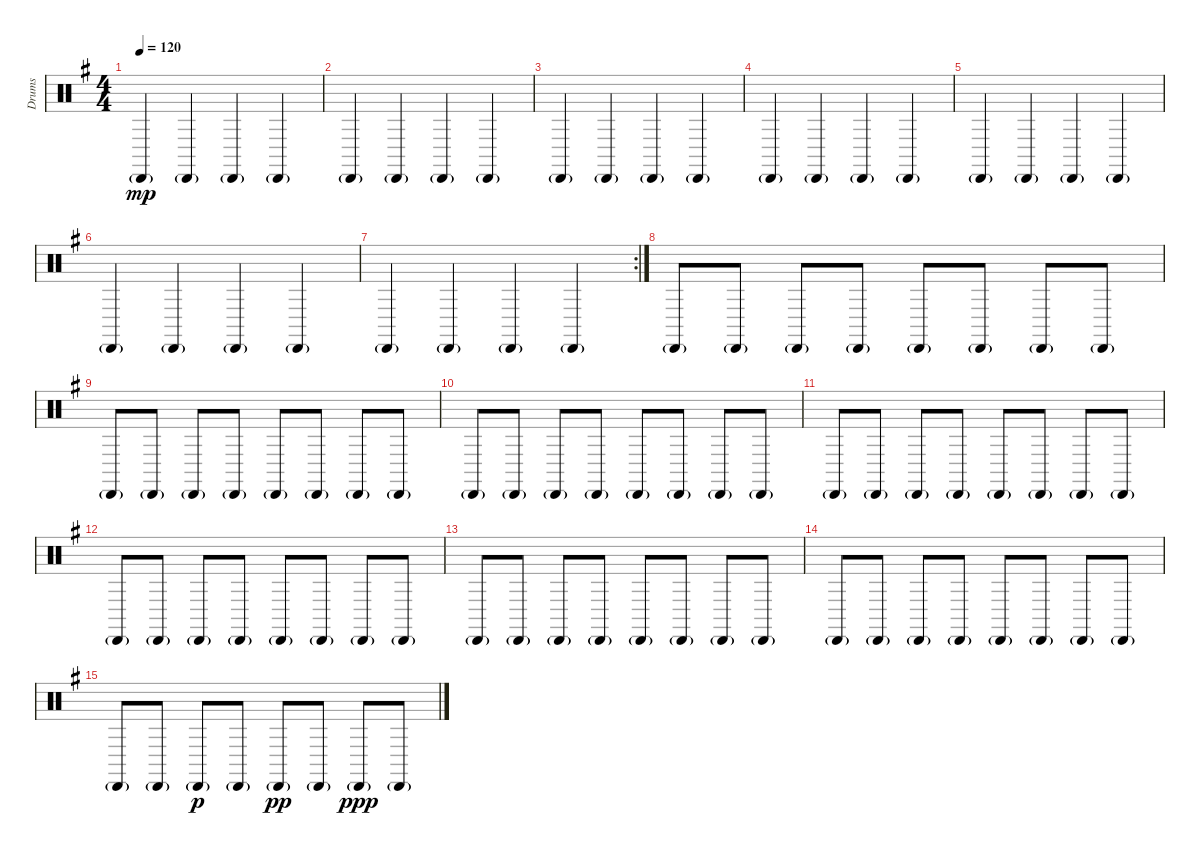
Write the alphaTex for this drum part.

\track ("Drums" "Drums") {instrument percussion}
\staff {score}
\articulation defaults
\ts (4 4)
\tempo 120
\clef neutral
\ks g "Cabasa (hit)"{g}.4{dy mp} "Cabasa (hit)"{g}.4 "Cabasa (hit)"{g}.4 "Cabasa (hit)"{g}.4
|
"Cabasa (hit)"{g}.4 "Cabasa (hit)"{g}.4 "Cabasa (hit)"{g}.4 "Cabasa (hit)"{g}.4 |
"Cabasa (hit)"{g}.4 "Cabasa (hit)"{g}.4 "Cabasa (hit)"{g}.4 "Cabasa (hit)"{g}.4 |
"Cabasa (hit)"{g}.4 "Cabasa (hit)"{g}.4 "Cabasa (hit)"{g}.4 "Cabasa (hit)"{g}.4 |
"Cabasa (hit)"{g}.4 "Cabasa (hit)"{g}.4 "Cabasa (hit)"{g}.4 "Cabasa (hit)"{g}.4 |
"Cabasa (hit)"{g}.4 "Cabasa (hit)"{g}.4 "Cabasa (hit)"{g}.4 "Cabasa (hit)"{g}.4 |
\rc 2 "Cabasa (hit)"{g}.4 "Cabasa (hit)"{g}.4 "Cabasa (hit)"{g}.4 "Cabasa (hit)"{g}.4
|
"Cabasa (hit)"{g}.8 "Cabasa (hit)"{g}.8 "Cabasa (hit)"{g}.8 "Cabasa (hit)"{g}.8 "Cabasa (hit)"{g}.8 "Cabasa (hit)"{g}.8 "Cabasa (hit)"{g}.8 "Cabasa (hit)"{g}.8 |
"Cabasa (hit)"{g}.8 "Cabasa (hit)"{g}.8 "Cabasa (hit)"{g}.8 "Cabasa (hit)"{g}.8 "Cabasa (hit)"{g}.8 "Cabasa (hit)"{g}.8 "Cabasa (hit)"{g}.8 "Cabasa (hit)"{g}.8 |
"Cabasa (hit)"{g}.8 "Cabasa (hit)"{g}.8 "Cabasa (hit)"{g}.8 "Cabasa (hit)"{g}.8 "Cabasa (hit)"{g}.8 "Cabasa (hit)"{g}.8 "Cabasa (hit)"{g}.8 "Cabasa (hit)"{g}.8 |
"Cabasa (hit)"{g}.8 "Cabasa (hit)"{g}.8 "Cabasa (hit)"{g}.8 "Cabasa (hit)"{g}.8 "Cabasa (hit)"{g}.8 "Cabasa (hit)"{g}.8 "Cabasa (hit)"{g}.8 "Cabasa (hit)"{g}.8 |
"Cabasa (hit)"{g}.8 "Cabasa (hit)"{g}.8 "Cabasa (hit)"{g}.8 "Cabasa (hit)"{g}.8 "Cabasa (hit)"{g}.8 "Cabasa (hit)"{g}.8 "Cabasa (hit)"{g}.8 "Cabasa (hit)"{g}.8 |
"Cabasa (hit)"{g}.8 "Cabasa (hit)"{g}.8 "Cabasa (hit)"{g}.8 "Cabasa (hit)"{g}.8 "Cabasa (hit)"{g}.8 "Cabasa (hit)"{g}.8 "Cabasa (hit)"{g}.8 "Cabasa (hit)"{g}.8 |
"Cabasa (hit)"{g}.8 "Cabasa (hit)"{g}.8 "Cabasa (hit)"{g}.8 "Cabasa (hit)"{g}.8 "Cabasa (hit)"{g}.8 "Cabasa (hit)"{g}.8 "Cabasa (hit)"{g}.8 "Cabasa (hit)"{g}.8 |
"Cabasa (hit)"{g}.8 "Cabasa (hit)"{g}.8 "Cabasa (hit)"{g}.8{dy p} "Cabasa (hit)"{g}.8 "Cabasa (hit)"{g}.8{dy pp} "Cabasa (hit)"{g}.8 "Cabasa (hit)"{g}.8{dy ppp} "Cabasa (hit)"{g}.8
